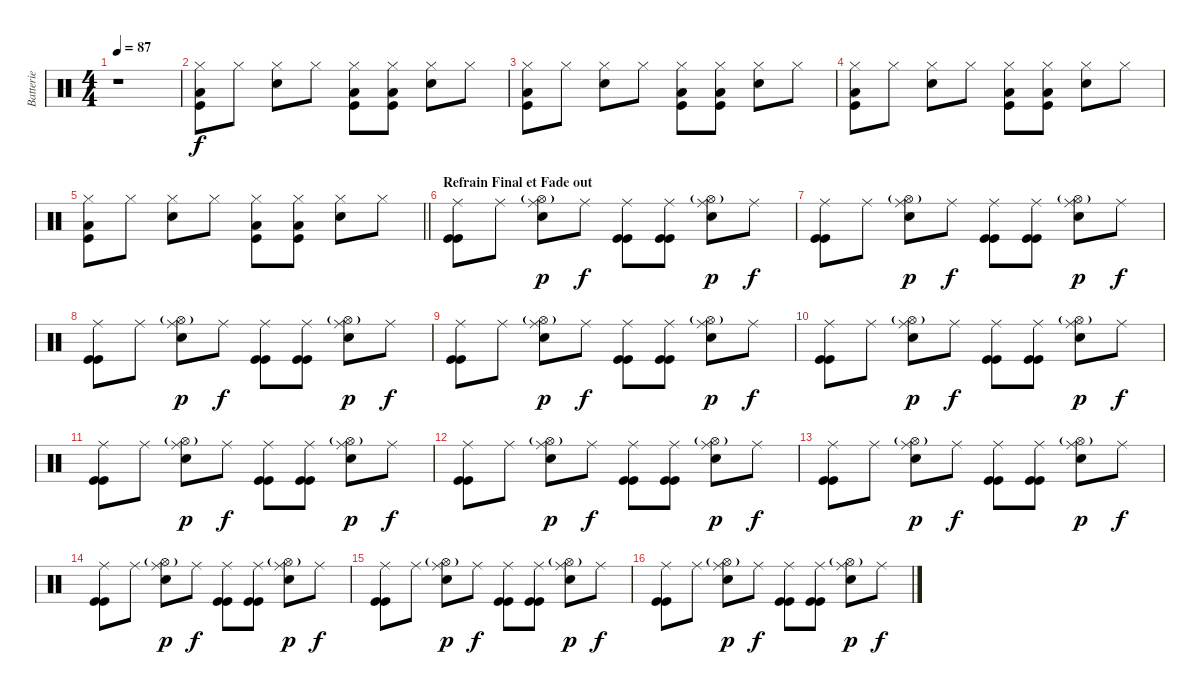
\track ("Batterie" "Batterie") {instrument percussion}
\staff {score}
\articulation defaults
\ts (4 4)
\tempo 87
\clef neutral
\ks c
r.1{dy f} |
("Hi-Hat (closed)" "Kick (hit)" "Low Floor Tom (hit)").8 "Hi-Hat (closed)".8 ("Hi-Hat (closed)" "Snare (hit) 2").8 "Hi-Hat (closed)".8 ("Hi-Hat (closed)" "Kick (hit)" "Low Floor Tom (hit)").8 ("Hi-Hat (closed)" "Kick (hit)" "Low Floor Tom (hit)").8 ("Hi-Hat (closed)" "Snare (hit) 2").8 "Hi-Hat (closed)".8 |
("Hi-Hat (closed)" "Kick (hit)" "Low Floor Tom (hit)").8 "Hi-Hat (closed)".8 ("Hi-Hat (closed)" "Snare (hit) 2").8 "Hi-Hat (closed)".8 ("Hi-Hat (closed)" "Kick (hit)" "Low Floor Tom (hit)").8 ("Hi-Hat (closed)" "Kick (hit)" "Low Floor Tom (hit)").8 ("Hi-Hat (closed)" "Snare (hit) 2").8 "Hi-Hat (closed)".8 |
("Hi-Hat (closed)" "Kick (hit)" "Low Floor Tom (hit)").8 "Hi-Hat (closed)".8 ("Hi-Hat (closed)" "Snare (hit) 2").8 "Hi-Hat (closed)".8 ("Hi-Hat (closed)" "Kick (hit)" "Low Floor Tom (hit)").8 ("Hi-Hat (closed)" "Kick (hit)" "Low Floor Tom (hit)").8 ("Hi-Hat (closed)" "Snare (hit) 2").8 "Hi-Hat (closed)".8 |
\barLineRight lightlight
("Hi-Hat (closed)" "Kick (hit)" "Low Floor Tom (hit)").8 "Hi-Hat (closed)".8 ("Hi-Hat (closed)" "Snare (hit) 2").8 "Hi-Hat (closed)".8 ("Hi-Hat (closed)" "Kick (hit)" "Low Floor Tom (hit)").8 ("Hi-Hat (closed)" "Kick (hit)" "Low Floor Tom (hit)").8 ("Hi-Hat (closed)" "Snare (hit) 2").8 "Hi-Hat (closed)".8 |
\section ("" "Refrain Final et Fade out")
("Ride (middle)" "Kick (hit)" "Kick (hit)").8 "Ride (middle)".8 ("Hi-Hat (open)"{g} "Ride (middle)" "Electric Snare (hit)").8{dy p} "Ride (middle)".8{dy f} ("Ride (middle)" "Kick (hit)" "Kick (hit)").8 ("Ride (middle)" "Kick (hit)" "Kick (hit)").8 ("Hi-Hat (open)"{g} "Ride (middle)" "Electric Snare (hit)").8{dy p} "Ride (middle)".8{dy f} |
("Ride (middle)" "Kick (hit)" "Kick (hit)").8 "Ride (middle)".8 ("Hi-Hat (open)"{g} "Ride (middle)" "Electric Snare (hit)").8{dy p} "Ride (middle)".8{dy f} ("Ride (middle)" "Kick (hit)" "Kick (hit)").8 ("Ride (middle)" "Kick (hit)" "Kick (hit)").8 ("Hi-Hat (open)"{g} "Ride (middle)" "Electric Snare (hit)").8{dy p} "Ride (middle)".8{dy f} |
("Ride (middle)" "Kick (hit)" "Kick (hit)").8 "Ride (middle)".8 ("Hi-Hat (open)"{g} "Ride (middle)" "Electric Snare (hit)").8{dy p} "Ride (middle)".8{dy f} ("Ride (middle)" "Kick (hit)" "Kick (hit)").8 ("Ride (middle)" "Kick (hit)" "Kick (hit)").8 ("Hi-Hat (open)"{g} "Ride (middle)" "Electric Snare (hit)").8{dy p} "Ride (middle)".8{dy f} |
("Ride (middle)" "Kick (hit)" "Kick (hit)").8 "Ride (middle)".8 ("Hi-Hat (open)"{g} "Ride (middle)" "Electric Snare (hit)").8{dy p} "Ride (middle)".8{dy f} ("Ride (middle)" "Kick (hit)" "Kick (hit)").8 ("Ride (middle)" "Kick (hit)" "Kick (hit)").8 ("Hi-Hat (open)"{g} "Ride (middle)" "Electric Snare (hit)").8{dy p} "Ride (middle)".8{dy f} |
("Ride (middle)" "Kick (hit)" "Kick (hit)").8 "Ride (middle)".8 ("Hi-Hat (open)"{g} "Ride (middle)" "Electric Snare (hit)").8{dy p} "Ride (middle)".8{dy f} ("Ride (middle)" "Kick (hit)" "Kick (hit)").8 ("Ride (middle)" "Kick (hit)" "Kick (hit)").8 ("Hi-Hat (open)"{g} "Ride (middle)" "Electric Snare (hit)").8{dy p} "Ride (middle)".8{dy f} |
("Ride (middle)" "Kick (hit)" "Kick (hit)").8 "Ride (middle)".8 ("Hi-Hat (open)"{g} "Ride (middle)" "Electric Snare (hit)").8{dy p} "Ride (middle)".8{dy f} ("Ride (middle)" "Kick (hit)" "Kick (hit)").8 ("Ride (middle)" "Kick (hit)" "Kick (hit)").8 ("Hi-Hat (open)"{g} "Ride (middle)" "Electric Snare (hit)").8{dy p} "Ride (middle)".8{dy f} |
("Ride (middle)" "Kick (hit)" "Kick (hit)").8 "Ride (middle)".8 ("Hi-Hat (open)"{g} "Ride (middle)" "Electric Snare (hit)").8{dy p} "Ride (middle)".8{dy f} ("Ride (middle)" "Kick (hit)" "Kick (hit)").8 ("Ride (middle)" "Kick (hit)" "Kick (hit)").8 ("Hi-Hat (open)"{g} "Ride (middle)" "Electric Snare (hit)").8{dy p} "Ride (middle)".8{dy f} |
("Ride (middle)" "Kick (hit)" "Kick (hit)").8 "Ride (middle)".8 ("Hi-Hat (open)"{g} "Ride (middle)" "Electric Snare (hit)").8{dy p} "Ride (middle)".8{dy f} ("Ride (middle)" "Kick (hit)" "Kick (hit)").8 ("Ride (middle)" "Kick (hit)" "Kick (hit)").8 ("Hi-Hat (open)"{g} "Ride (middle)" "Electric Snare (hit)").8{dy p} "Ride (middle)".8{dy f} |
("Ride (middle)" "Kick (hit)" "Kick (hit)").8 "Ride (middle)".8 ("Hi-Hat (open)"{g} "Ride (middle)" "Electric Snare (hit)").8{dy p} "Ride (middle)".8{dy f} ("Ride (middle)" "Kick (hit)" "Kick (hit)").8 ("Ride (middle)" "Kick (hit)" "Kick (hit)").8 ("Hi-Hat (open)"{g} "Ride (middle)" "Electric Snare (hit)").8{dy p} "Ride (middle)".8{dy f} |
("Ride (middle)" "Kick (hit)" "Kick (hit)").8 "Ride (middle)".8 ("Hi-Hat (open)"{g} "Ride (middle)" "Electric Snare (hit)").8{dy p} "Ride (middle)".8{dy f} ("Ride (middle)" "Kick (hit)" "Kick (hit)").8 ("Ride (middle)" "Kick (hit)" "Kick (hit)").8 ("Hi-Hat (open)"{g} "Ride (middle)" "Electric Snare (hit)").8{dy p} "Ride (middle)".8{dy f} |
("Ride (middle)" "Kick (hit)" "Kick (hit)").8 "Ride (middle)".8 ("Hi-Hat (open)"{g} "Ride (middle)" "Electric Snare (hit)").8{dy p} "Ride (middle)".8{dy f} ("Ride (middle)" "Kick (hit)" "Kick (hit)").8 ("Ride (middle)" "Kick (hit)" "Kick (hit)").8 ("Hi-Hat (open)"{g} "Ride (middle)" "Electric Snare (hit)").8{dy p} "Ride (middle)".8{dy f}
